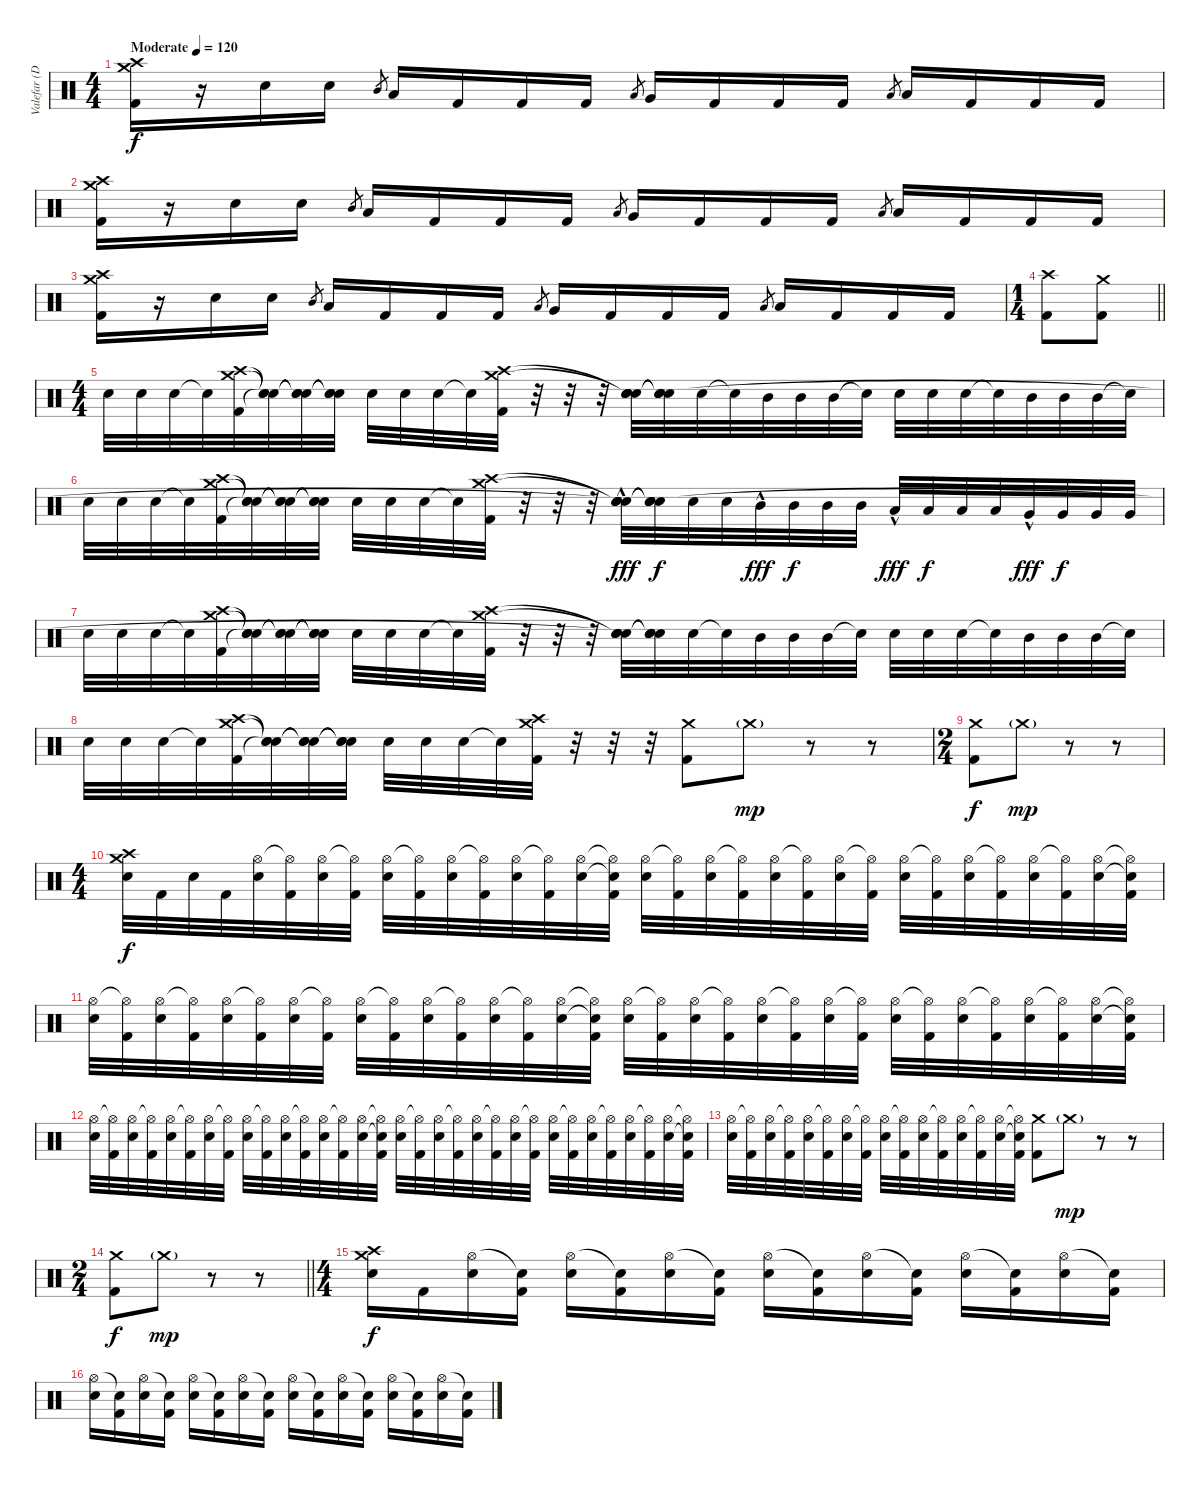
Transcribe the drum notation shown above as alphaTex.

\track ("Valefar (Drums)" "Valefar (D") {instrument percussion}
\staff {score}
\articulation defaults
\ts (4 4)
\tempo (120 "Moderate")
\clef neutral
\ks c
("Crash medium (hit)" "Crash high (hit)" "Kick (hit) 2").16{dy f} r.16 "Electric Snare (hit)".16 "Electric Snare (hit)".16 "Mid Tom (hit)".8{gr} "Low Tom (hit)".16 "Kick (hit) 2".16 "Kick (hit) 2".16 "Kick (hit) 2".16 "Low Tom (hit)".8{gr} "Very Low Tom (hit)".16 "Kick (hit) 2".16 "Kick (hit) 2".16 "Kick (hit) 2".16 "Low Floor Tom (hit)".8{gr} "Low Floor Tom (hit)".16 "Kick (hit) 2".16 "Kick (hit) 2".16 "Kick (hit) 2".16 |
("Crash medium (hit)" "Crash high (hit)" "Kick (hit) 2").16 r.16 "Electric Snare (hit)".16 "Electric Snare (hit)".16 "Mid Tom (hit)".8{gr} "Low Tom (hit)".16 "Kick (hit) 2".16 "Kick (hit) 2".16 "Kick (hit) 2".16 "Low Tom (hit)".8{gr} "Very Low Tom (hit)".16 "Kick (hit) 2".16 "Kick (hit) 2".16 "Kick (hit) 2".16 "Low Floor Tom (hit)".8{gr} "Low Floor Tom (hit)".16 "Kick (hit) 2".16 "Kick (hit) 2".16 "Kick (hit) 2".16 |
("Crash medium (hit)" "Crash high (hit)" "Kick (hit) 2").16 r.16 "Electric Snare (hit)".16 "Electric Snare (hit)".16 "Mid Tom (hit)".8{gr} "Low Tom (hit)".16 "Kick (hit) 2".16 "Kick (hit) 2".16 "Kick (hit) 2".16 "Low Tom (hit)".8{gr} "Very Low Tom (hit)".16 "Kick (hit) 2".16 "Kick (hit) 2".16 "Kick (hit) 2".16 "Low Floor Tom (hit)".8{gr} "Low Floor Tom (hit)".16 "Kick (hit) 2".16 "Kick (hit) 2".16 "Kick (hit) 2".16 |
\ts (1 4)
\barLineRight lightlight
("Crash high (hit)" "Kick (hit) 2").8 ("Crash medium (hit)" "Kick (hit) 2").8 |
\ts (4 4)
"Electric Snare (hit)".32 "Electric Snare (hit)".32 "Electric Snare (hit)".32 "Snare (hit)"{t}.32 ("Crash medium (hit)" "Crash high (hit)" "Kick (hit) 2").32 ("Snare (hit)"{t} "Snare (hit)"{t} "Snare (hit)"{t}).32 ("Snare (hit)"{t} "Snare (hit)"{t} "Snare (hit)"{t}).32 ("Snare (hit)"{t} "Snare (hit)"{t} "Snare (hit)"{t}).32 "Electric Snare (hit)".32 "Electric Snare (hit)".32 "Electric Snare (hit)".32 "Snare (hit)"{t}.32 ("Crash medium (hit)" "Crash high (hit)" "Kick (hit) 2").32 r.32 r.32 r.32 ("Snare (hit)"{t} "Snare (hit)"{t} "Electric Snare (hit)" "Snare (hit)").32 ("Snare (hit)"{t} "Snare (hit)"{t} "Electric Snare (hit)" "Snare (hit)"{t}).32 "Electric Snare (hit)".32 "Snare (hit)"{t}.32 "Mid Tom (hit)".32 "Mid Tom (hit)".32 "Mid Tom (hit)".32 "Snare (hit)"{t}.32 "Electric Snare (hit)".32 "Electric Snare (hit)".32 "Electric Snare (hit)".32 "Snare (hit)"{t}.32 "Mid Tom (hit)".32 "Mid Tom (hit)".32 "Mid Tom (hit)".32 "Snare (hit)"{t}.32 |
"Electric Snare (hit)".32 "Electric Snare (hit)".32 "Electric Snare (hit)".32 "Snare (hit)"{t}.32 ("Crash medium (hit)" "Crash high (hit)" "Kick (hit) 2").32 ("Snare (hit)"{t} "Snare (hit)"{t} "Snare (hit)"{t}).32 ("Snare (hit)"{t} "Snare (hit)"{t} "Snare (hit)"{t}).32 ("Snare (hit)"{t} "Snare (hit)"{t} "Snare (hit)"{t}).32 "Electric Snare (hit)".32 "Electric Snare (hit)".32 "Electric Snare (hit)".32 "Snare (hit)"{t}.32 ("Crash medium (hit)" "Crash high (hit)" "Kick (hit) 2").32 r.32 r.32 r.32 ("Snare (hit)"{t} "Snare (hit)"{t} "Electric Snare (hit)"{hac} "Snare (hit)"{t}).32{dy fff} ("Snare (hit)"{t} "Snare (hit)"{t} "Electric Snare (hit)" "Snare (hit)"{t}).32{dy f} "Electric Snare (hit)".32 "Electric Snare (hit)".32 "Mid Tom (hit)"{hac}.32{dy fff} "Mid Tom (hit)".32{dy f} "Mid Tom (hit)".32 "Mid Tom (hit)".32 "Low Tom (hit)"{hac}.32{dy fff} "Low Tom (hit)".32{dy f} "Low Tom (hit)".32 "Low Tom (hit)".32 "Very Low Tom (hit)"{hac}.32{dy fff} "Very Low Tom (hit)".32{dy f} "Very Low Tom (hit)".32 "Very Low Tom (hit)".32 |
"Electric Snare (hit)".32 "Electric Snare (hit)".32 "Electric Snare (hit)".32 "Snare (hit)"{t}.32 ("Crash medium (hit)" "Crash high (hit)" "Kick (hit) 2").32 ("Snare (hit)"{t} "Snare (hit)"{t} "Snare (hit)"{t}).32 ("Snare (hit)"{t} "Snare (hit)"{t} "Snare (hit)"{t}).32 ("Snare (hit)"{t} "Snare (hit)"{t} "Snare (hit)"{t}).32 "Electric Snare (hit)".32 "Electric Snare (hit)".32 "Electric Snare (hit)".32 "Snare (hit)"{t}.32 ("Crash medium (hit)" "Crash high (hit)" "Kick (hit) 2").32 r.32 r.32 r.32 ("Snare (hit)"{t} "Snare (hit)"{t} "Electric Snare (hit)" "Snare (hit)"{t}).32 ("Snare (hit)"{t} "Snare (hit)"{t} "Electric Snare (hit)" "Snare (hit)"{t}).32 "Electric Snare (hit)".32 "Snare (hit)"{t}.32 "Mid Tom (hit)".32 "Mid Tom (hit)".32 "Mid Tom (hit)".32 "Snare (hit)"{t}.32 "Electric Snare (hit)".32 "Electric Snare (hit)".32 "Electric Snare (hit)".32 "Snare (hit)"{t}.32 "Mid Tom (hit)".32 "Mid Tom (hit)".32 "Mid Tom (hit)".32 "Snare (hit)"{t}.32 |
"Electric Snare (hit)".32 "Electric Snare (hit)".32 "Electric Snare (hit)".32 "Snare (hit)"{t}.32 ("Crash medium (hit)" "Crash high (hit)" "Kick (hit) 2").32 ("Snare (hit)"{t} "Snare (hit)"{t} "Snare (hit)"{t}).32 ("Snare (hit)"{t} "Snare (hit)"{t} "Snare (hit)"{t}).32 ("Snare (hit)"{t} "Snare (hit)"{t} "Snare (hit)"{t}).32 "Electric Snare (hit)".32 "Electric Snare (hit)".32 "Electric Snare (hit)".32 "Snare (hit)"{t}.32 ("Crash medium (hit)" "Crash high (hit)" "Kick (hit) 2").32 r.32 r.32 r.32 ("Crash medium (hit)" "Kick (hit) 2").8 "Crash medium (hit)"{g}.8{dy mp} r.8 r.8 |
\ts (2 4)
("Crash medium (hit)" "Kick (hit) 2").8{dy f} "Crash medium (hit)"{g}.8{dy mp} r.8 r.8 |
\ts (4 4)
("Crash medium (hit)" "Crash high (hit)" "Electric Snare (hit)").32{dy f} "Kick (hit) 2".32 "Electric Snare (hit)".32 "Kick (hit) 2".32 ("Hi-Hat (open)" "Electric Snare (hit)").32 ("Hi-Hat (open)"{t} "Kick (hit) 2").32 ("Hi-Hat (open)" "Electric Snare (hit)").32 ("Hi-Hat (open)"{t} "Kick (hit) 2").32 ("Hi-Hat (open)" "Electric Snare (hit)").32 ("Hi-Hat (open)"{t} "Kick (hit) 2").32 ("Hi-Hat (open)" "Electric Snare (hit)").32 ("Hi-Hat (open)"{t} "Kick (hit) 2").32 ("Hi-Hat (open)" "Electric Snare (hit)").32 ("Hi-Hat (open)"{t} "Kick (hit) 2").32 ("Hi-Hat (open)" "Electric Snare (hit)").32 ("Hi-Hat (open)"{t} "Snare (hit)"{t} "Kick (hit) 2").32 ("Hi-Hat (open)" "Electric Snare (hit)").32 ("Hi-Hat (open)"{t} "Kick (hit) 2").32 ("Hi-Hat (open)" "Electric Snare (hit)").32 ("Hi-Hat (open)"{t} "Kick (hit) 2").32 ("Hi-Hat (open)" "Electric Snare (hit)").32 ("Hi-Hat (open)"{t} "Kick (hit) 2").32 ("Hi-Hat (open)" "Electric Snare (hit)").32 ("Hi-Hat (open)"{t} "Kick (hit) 2").32 ("Hi-Hat (open)" "Electric Snare (hit)").32 ("Hi-Hat (open)"{t} "Kick (hit) 2").32 ("Hi-Hat (open)" "Electric Snare (hit)").32 ("Hi-Hat (open)"{t} "Kick (hit) 2").32 ("Hi-Hat (open)" "Electric Snare (hit)").32 ("Hi-Hat (open)"{t} "Kick (hit) 2").32 ("Hi-Hat (open)" "Electric Snare (hit)").32 ("Hi-Hat (open)"{t} "Snare (hit)"{t} "Kick (hit) 2").32 |
("Hi-Hat (open)" "Electric Snare (hit)").32 ("Hi-Hat (open)"{t} "Kick (hit) 2").32 ("Hi-Hat (open)" "Electric Snare (hit)").32 ("Hi-Hat (open)"{t} "Kick (hit) 2").32 ("Hi-Hat (open)" "Electric Snare (hit)").32 ("Hi-Hat (open)"{t} "Kick (hit) 2").32 ("Hi-Hat (open)" "Electric Snare (hit)").32 ("Hi-Hat (open)"{t} "Kick (hit) 2").32 ("Hi-Hat (open)" "Electric Snare (hit)").32 ("Hi-Hat (open)"{t} "Kick (hit) 2").32 ("Hi-Hat (open)" "Electric Snare (hit)").32 ("Hi-Hat (open)"{t} "Kick (hit) 2").32 ("Hi-Hat (open)" "Electric Snare (hit)").32 ("Hi-Hat (open)"{t} "Kick (hit) 2").32 ("Hi-Hat (open)" "Electric Snare (hit)").32 ("Hi-Hat (open)"{t} "Snare (hit)"{t} "Kick (hit) 2").32 ("Hi-Hat (open)" "Electric Snare (hit)").32 ("Hi-Hat (open)"{t} "Kick (hit) 2").32 ("Hi-Hat (open)" "Electric Snare (hit)").32 ("Hi-Hat (open)"{t} "Kick (hit) 2").32 ("Hi-Hat (open)" "Electric Snare (hit)").32 ("Hi-Hat (open)"{t} "Kick (hit) 2").32 ("Hi-Hat (open)" "Electric Snare (hit)").32 ("Hi-Hat (open)"{t} "Kick (hit) 2").32 ("Hi-Hat (open)" "Electric Snare (hit)").32 ("Hi-Hat (open)"{t} "Kick (hit) 2").32 ("Hi-Hat (open)" "Electric Snare (hit)").32 ("Hi-Hat (open)"{t} "Kick (hit) 2").32 ("Hi-Hat (open)" "Electric Snare (hit)").32 ("Hi-Hat (open)"{t} "Kick (hit) 2").32 ("Hi-Hat (open)" "Electric Snare (hit)").32 ("Hi-Hat (open)"{t} "Snare (hit)"{t} "Kick (hit) 2").32 |
("Hi-Hat (open)" "Electric Snare (hit)").32 ("Hi-Hat (open)"{t} "Kick (hit) 2").32 ("Hi-Hat (open)" "Electric Snare (hit)").32 ("Hi-Hat (open)"{t} "Kick (hit) 2").32 ("Hi-Hat (open)" "Electric Snare (hit)").32 ("Hi-Hat (open)"{t} "Kick (hit) 2").32 ("Hi-Hat (open)" "Electric Snare (hit)").32 ("Hi-Hat (open)"{t} "Kick (hit) 2").32 ("Hi-Hat (open)" "Electric Snare (hit)").32 ("Hi-Hat (open)"{t} "Kick (hit) 2").32 ("Hi-Hat (open)" "Electric Snare (hit)").32 ("Hi-Hat (open)"{t} "Kick (hit) 2").32 ("Hi-Hat (open)" "Electric Snare (hit)").32 ("Hi-Hat (open)"{t} "Kick (hit) 2").32 ("Hi-Hat (open)" "Electric Snare (hit)").32 ("Hi-Hat (open)"{t} "Snare (hit)"{t} "Kick (hit) 2").32 ("Hi-Hat (open)" "Electric Snare (hit)").32 ("Hi-Hat (open)"{t} "Kick (hit) 2").32 ("Hi-Hat (open)" "Electric Snare (hit)").32 ("Hi-Hat (open)"{t} "Kick (hit) 2").32 ("Hi-Hat (open)" "Electric Snare (hit)").32 ("Hi-Hat (open)"{t} "Kick (hit) 2").32 ("Hi-Hat (open)" "Electric Snare (hit)").32 ("Hi-Hat (open)"{t} "Kick (hit) 2").32 ("Hi-Hat (open)" "Electric Snare (hit)").32 ("Hi-Hat (open)"{t} "Kick (hit) 2").32 ("Hi-Hat (open)" "Electric Snare (hit)").32 ("Hi-Hat (open)"{t} "Kick (hit) 2").32 ("Hi-Hat (open)" "Electric Snare (hit)").32 ("Hi-Hat (open)"{t} "Kick (hit) 2").32 ("Hi-Hat (open)" "Electric Snare (hit)").32 ("Hi-Hat (open)"{t} "Snare (hit)"{t} "Kick (hit) 2").32 |
("Hi-Hat (open)" "Electric Snare (hit)").32 ("Hi-Hat (open)"{t} "Kick (hit) 2").32 ("Hi-Hat (open)" "Electric Snare (hit)").32 ("Hi-Hat (open)"{t} "Kick (hit) 2").32 ("Hi-Hat (open)" "Electric Snare (hit)").32 ("Hi-Hat (open)"{t} "Kick (hit) 2").32 ("Hi-Hat (open)" "Electric Snare (hit)").32 ("Hi-Hat (open)"{t} "Kick (hit) 2").32 ("Hi-Hat (open)" "Electric Snare (hit)").32 ("Hi-Hat (open)"{t} "Kick (hit) 2").32 ("Hi-Hat (open)" "Electric Snare (hit)").32 ("Hi-Hat (open)"{t} "Kick (hit) 2").32 ("Hi-Hat (open)" "Electric Snare (hit)").32 ("Hi-Hat (open)"{t} "Kick (hit) 2").32 ("Hi-Hat (open)" "Electric Snare (hit)").32 ("Hi-Hat (open)"{t} "Snare (hit)"{t} "Kick (hit) 2").32 ("Crash medium (hit)" "Kick (hit) 2").8 "Crash medium (hit)"{g}.8{dy mp} r.8 r.8 |
\ts (2 4)
\barLineRight lightlight
("Crash medium (hit)" "Kick (hit) 2").8{dy f} "Crash medium (hit)"{g}.8{dy mp} r.8 r.8 |
\ts (4 4)
("Crash medium (hit)" "Crash high (hit)" "Electric Snare (hit)").16{dy f} "Kick (hit) 2".16 ("Hi-Hat (open)" "Electric Snare (hit)").16 ("Snare (hit)"{t} "Kick (hit) 2").16 ("Hi-Hat (open)" "Electric Snare (hit)").16 ("Snare (hit)"{t} "Kick (hit) 2").16 ("Hi-Hat (open)" "Electric Snare (hit)").16 ("Snare (hit)"{t} "Kick (hit) 2").16 ("Hi-Hat (open)" "Electric Snare (hit)").16 ("Snare (hit)"{t} "Kick (hit) 2").16 ("Hi-Hat (open)" "Electric Snare (hit)").16 ("Snare (hit)"{t} "Kick (hit) 2").16 ("Hi-Hat (open)" "Electric Snare (hit)").16 ("Snare (hit)"{t} "Kick (hit) 2").16 ("Hi-Hat (open)" "Electric Snare (hit)").16 ("Snare (hit)"{t} "Kick (hit) 2").16 |
("Hi-Hat (open)" "Electric Snare (hit)").16 ("Snare (hit)"{t} "Kick (hit) 2").16 ("Hi-Hat (open)" "Electric Snare (hit)").16 ("Snare (hit)"{t} "Kick (hit) 2").16 ("Hi-Hat (open)" "Electric Snare (hit)").16 ("Snare (hit)"{t} "Kick (hit) 2").16 ("Hi-Hat (open)" "Electric Snare (hit)").16 ("Snare (hit)"{t} "Kick (hit) 2").16 ("Hi-Hat (open)" "Electric Snare (hit)").16 ("Snare (hit)"{t} "Kick (hit) 2").16 ("Hi-Hat (open)" "Electric Snare (hit)").16 ("Snare (hit)"{t} "Kick (hit) 2").16 ("Hi-Hat (open)" "Electric Snare (hit)").16 ("Snare (hit)"{t} "Kick (hit) 2").16 ("Hi-Hat (open)" "Electric Snare (hit)").16 ("Snare (hit)"{t} "Kick (hit) 2").16
